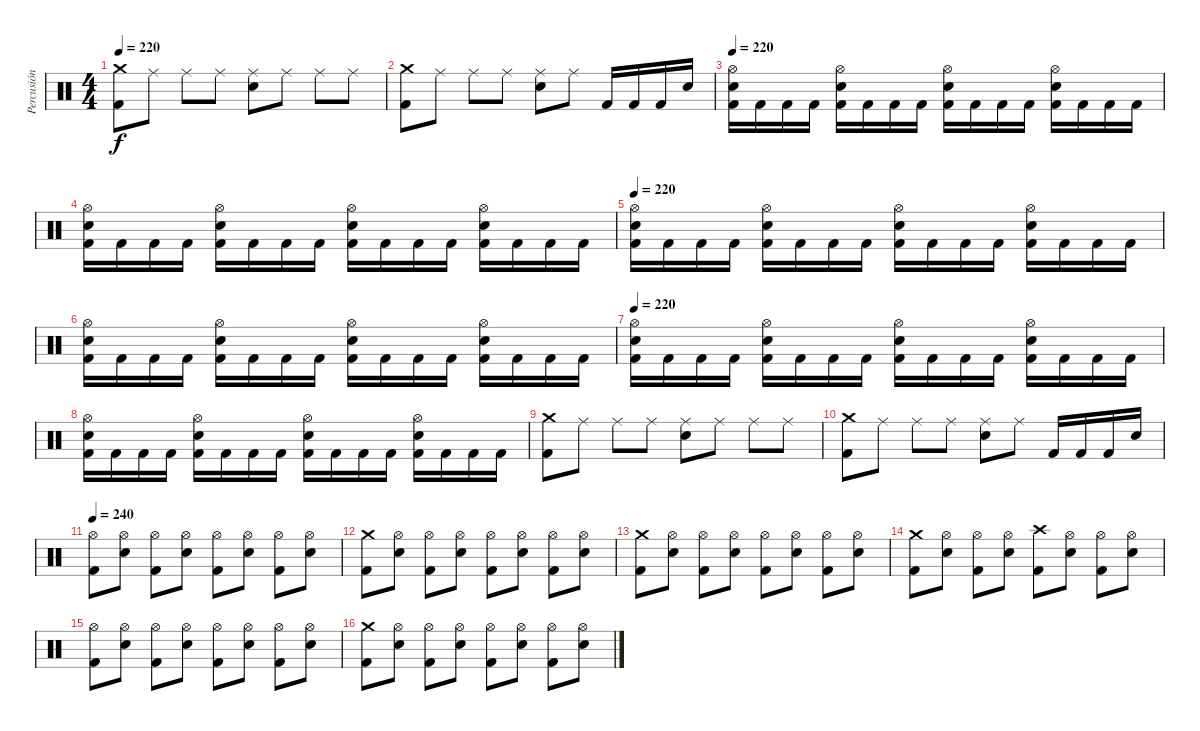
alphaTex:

\track ("Percusión" "Percusión") {instrument percussion}
\staff {score}
\articulation defaults
\ts (4 4)
\tempo 220
\clef neutral
\ks c
("Crash medium (hit)" "Kick (hit) 2").8{dy f} "Ride (middle)".8 "Ride (middle)".8 "Ride (middle)".8 ("Ride (middle)" "Electric Snare (hit)").8 "Ride (middle)".8 "Ride (middle)".8 "Ride (middle)".8 |
("Crash medium (hit)" "Kick (hit) 2").8 "Ride (middle)".8 "Ride (middle)".8 "Ride (middle)".8 ("Ride (middle)" "Electric Snare (hit)").8 "Ride (middle)".8 "Kick (hit) 2".16 "Kick (hit) 2".16 "Kick (hit) 2".16 "Electric Snare (hit)".16 |
\tempo 200
\tempo 220
("Hi-Hat (open)" "Electric Snare (hit)" "Kick (hit) 2").16 "Kick (hit) 2".16 "Kick (hit) 2".16 "Kick (hit) 2".16 ("Hi-Hat (open)" "Electric Snare (hit)" "Kick (hit) 2").16 "Kick (hit) 2".16 "Kick (hit) 2".16 "Kick (hit) 2".16 ("Hi-Hat (open)" "Electric Snare (hit)" "Kick (hit) 2").16 "Kick (hit) 2".16 "Kick (hit) 2".16 "Kick (hit) 2".16 ("Hi-Hat (open)" "Electric Snare (hit)" "Kick (hit) 2").16 "Kick (hit) 2".16 "Kick (hit) 2".16 "Kick (hit) 2".16 |
("Hi-Hat (open)" "Electric Snare (hit)" "Kick (hit) 2").16 "Kick (hit) 2".16 "Kick (hit) 2".16 "Kick (hit) 2".16 ("Hi-Hat (open)" "Electric Snare (hit)" "Kick (hit) 2").16 "Kick (hit) 2".16 "Kick (hit) 2".16 "Kick (hit) 2".16 ("Hi-Hat (open)" "Electric Snare (hit)" "Kick (hit) 2").16 "Kick (hit) 2".16 "Kick (hit) 2".16 "Kick (hit) 2".16 ("Hi-Hat (open)" "Electric Snare (hit)" "Kick (hit) 2").16 "Kick (hit) 2".16 "Kick (hit) 2".16 "Kick (hit) 2".16 |
\tempo 200
\tempo 220
("Hi-Hat (open)" "Electric Snare (hit)" "Kick (hit) 2").16 "Kick (hit) 2".16 "Kick (hit) 2".16 "Kick (hit) 2".16 ("Hi-Hat (open)" "Electric Snare (hit)" "Kick (hit) 2").16 "Kick (hit) 2".16 "Kick (hit) 2".16 "Kick (hit) 2".16 ("Hi-Hat (open)" "Electric Snare (hit)" "Kick (hit) 2").16 "Kick (hit) 2".16 "Kick (hit) 2".16 "Kick (hit) 2".16 ("Hi-Hat (open)" "Electric Snare (hit)" "Kick (hit) 2").16 "Kick (hit) 2".16 "Kick (hit) 2".16 "Kick (hit) 2".16 |
("Hi-Hat (open)" "Electric Snare (hit)" "Kick (hit) 2").16 "Kick (hit) 2".16 "Kick (hit) 2".16 "Kick (hit) 2".16 ("Hi-Hat (open)" "Electric Snare (hit)" "Kick (hit) 2").16 "Kick (hit) 2".16 "Kick (hit) 2".16 "Kick (hit) 2".16 ("Hi-Hat (open)" "Electric Snare (hit)" "Kick (hit) 2").16 "Kick (hit) 2".16 "Kick (hit) 2".16 "Kick (hit) 2".16 ("Hi-Hat (open)" "Electric Snare (hit)" "Kick (hit) 2").16 "Kick (hit) 2".16 "Kick (hit) 2".16 "Kick (hit) 2".16 |
\tempo 200
\tempo 220
("Hi-Hat (open)" "Electric Snare (hit)" "Kick (hit) 2").16 "Kick (hit) 2".16 "Kick (hit) 2".16 "Kick (hit) 2".16 ("Hi-Hat (open)" "Electric Snare (hit)" "Kick (hit) 2").16 "Kick (hit) 2".16 "Kick (hit) 2".16 "Kick (hit) 2".16 ("Hi-Hat (open)" "Electric Snare (hit)" "Kick (hit) 2").16 "Kick (hit) 2".16 "Kick (hit) 2".16 "Kick (hit) 2".16 ("Hi-Hat (open)" "Electric Snare (hit)" "Kick (hit) 2").16 "Kick (hit) 2".16 "Kick (hit) 2".16 "Kick (hit) 2".16 |
("Hi-Hat (open)" "Electric Snare (hit)" "Kick (hit) 2").16 "Kick (hit) 2".16 "Kick (hit) 2".16 "Kick (hit) 2".16 ("Hi-Hat (open)" "Electric Snare (hit)" "Kick (hit) 2").16 "Kick (hit) 2".16 "Kick (hit) 2".16 "Kick (hit) 2".16 ("Hi-Hat (open)" "Electric Snare (hit)" "Kick (hit) 2").16 "Kick (hit) 2".16 "Kick (hit) 2".16 "Kick (hit) 2".16 ("Hi-Hat (open)" "Electric Snare (hit)" "Kick (hit) 2").16 "Kick (hit) 2".16 "Kick (hit) 2".16 "Kick (hit) 2".16 |
("Crash medium (hit)" "Kick (hit) 2").8 "Ride (middle)".8 "Ride (middle)".8 "Ride (middle)".8 ("Ride (middle)" "Electric Snare (hit)").8 "Ride (middle)".8 "Ride (middle)".8 "Ride (middle)".8 |
("Crash medium (hit)" "Kick (hit) 2").8 "Ride (middle)".8 "Ride (middle)".8 "Ride (middle)".8 ("Ride (middle)" "Electric Snare (hit)").8 "Ride (middle)".8 "Kick (hit) 2".16 "Kick (hit) 2".16 "Kick (hit) 2".16 "Electric Snare (hit)".16 |
\tempo 240
("Hi-Hat (open)" "Kick (hit) 2").8 ("Hi-Hat (open)" "Electric Snare (hit)").8 ("Hi-Hat (open)" "Kick (hit) 2").8 ("Hi-Hat (open)" "Electric Snare (hit)").8 ("Hi-Hat (open)" "Kick (hit) 2").8 ("Hi-Hat (open)" "Electric Snare (hit)").8 ("Hi-Hat (open)" "Kick (hit) 2").8 ("Hi-Hat (open)" "Electric Snare (hit)").8 |
("Crash medium (hit)" "Kick (hit) 2").8 ("Hi-Hat (open)" "Electric Snare (hit)").8 ("Hi-Hat (open)" "Kick (hit) 2").8 ("Hi-Hat (open)" "Electric Snare (hit)").8 ("Hi-Hat (open)" "Kick (hit) 2").8 ("Hi-Hat (open)" "Electric Snare (hit)").8 ("Hi-Hat (open)" "Kick (hit) 2").8 ("Hi-Hat (open)" "Electric Snare (hit)").8 |
("Crash medium (hit)" "Kick (hit) 2").8 ("Hi-Hat (open)" "Electric Snare (hit)").8 ("Hi-Hat (open)" "Kick (hit) 2").8 ("Hi-Hat (open)" "Electric Snare (hit)").8 ("Hi-Hat (open)" "Kick (hit) 2").8 ("Hi-Hat (open)" "Electric Snare (hit)").8 ("Hi-Hat (open)" "Kick (hit) 2").8 ("Hi-Hat (open)" "Electric Snare (hit)").8 |
("Crash medium (hit)" "Kick (hit) 2").8 ("Hi-Hat (open)" "Electric Snare (hit)").8 ("Hi-Hat (open)" "Kick (hit) 2").8 ("Hi-Hat (open)" "Electric Snare (hit)").8 ("Crash high (hit)" "Kick (hit) 2").8 ("Hi-Hat (open)" "Electric Snare (hit)").8 ("Hi-Hat (open)" "Kick (hit) 2").8 ("Hi-Hat (open)" "Electric Snare (hit)").8 |
("Hi-Hat (open)" "Kick (hit) 2").8 ("Hi-Hat (open)" "Electric Snare (hit)").8 ("Hi-Hat (open)" "Kick (hit) 2").8 ("Hi-Hat (open)" "Electric Snare (hit)").8 ("Hi-Hat (open)" "Kick (hit) 2").8 ("Hi-Hat (open)" "Electric Snare (hit)").8 ("Hi-Hat (open)" "Kick (hit) 2").8 ("Hi-Hat (open)" "Electric Snare (hit)").8 |
("Crash medium (hit)" "Kick (hit) 2").8 ("Hi-Hat (open)" "Electric Snare (hit)").8 ("Hi-Hat (open)" "Kick (hit) 2").8 ("Hi-Hat (open)" "Electric Snare (hit)").8 ("Hi-Hat (open)" "Kick (hit) 2").8 ("Hi-Hat (open)" "Electric Snare (hit)").8 ("Hi-Hat (open)" "Kick (hit) 2").8 ("Hi-Hat (open)" "Electric Snare (hit)").8
